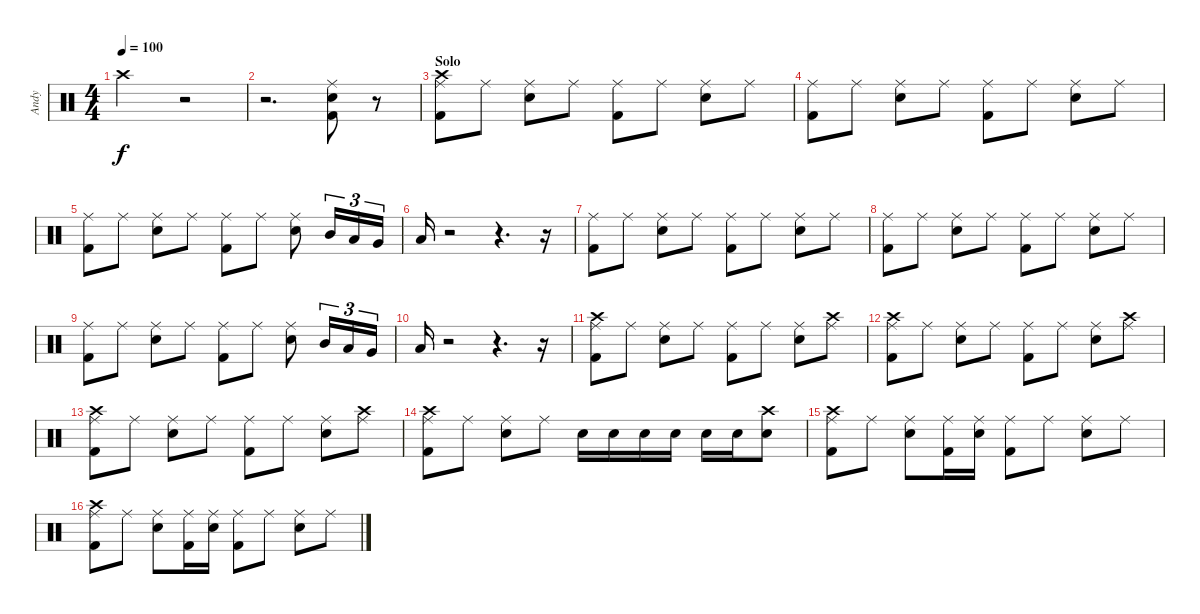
\track ("Andy" "Andy") {instrument percussion}
\staff {score}
\articulation defaults
\ts (4 4)
\tempo 100
\clef neutral
\ks c "Crash high (hit)".2{dy f}
r.2 |
r.2{d} ("Ride (middle)" "Snare (hit) 2" "Kick (hit) 2").8 r.8 |
\section ("" "Solo")
("Crash high (hit)" "Ride (middle)" "Kick (hit) 2").8 "Ride (middle)".8 ("Ride (middle)" "Snare (hit) 2").8 "Ride (middle)".8 ("Ride (middle)" "Kick (hit) 2").8 "Ride (middle)".8 ("Ride (middle)" "Snare (hit) 2").8 "Ride (middle)".8 |
("Ride (middle)" "Kick (hit) 2").8 "Ride (middle)".8 ("Ride (middle)" "Snare (hit) 2").8 "Ride (middle)".8 ("Ride (middle)" "Kick (hit) 2").8 "Ride (middle)".8 ("Ride (middle)" "Snare (hit) 2").8 "Ride (middle)".8 |
("Ride (middle)" "Kick (hit) 2").8 "Ride (middle)".8 ("Ride (middle)" "Snare (hit) 2").8 "Ride (middle)".8 ("Ride (middle)" "Kick (hit) 2").8 "Ride (middle)".8 ("Ride (middle)" "Snare (hit) 2").8 "Mid Tom (hit)".16{tu (3 2)} "Low Tom (hit)".16{tu (3 2)} "Very Low Tom (hit)".16{tu (3 2)} |
"Low Floor Tom (hit)".16 r.2 r.4{d} r.16 |
("Ride (middle)" "Kick (hit) 2").8 "Ride (middle)".8 ("Ride (middle)" "Snare (hit) 2").8 "Ride (middle)".8 ("Ride (middle)" "Kick (hit) 2").8 "Ride (middle)".8 ("Ride (middle)" "Snare (hit) 2").8 "Ride (middle)".8 |
("Ride (middle)" "Kick (hit) 2").8 "Ride (middle)".8 ("Ride (middle)" "Snare (hit) 2").8 "Ride (middle)".8 ("Ride (middle)" "Kick (hit) 2").8 "Ride (middle)".8 ("Ride (middle)" "Snare (hit) 2").8 "Ride (middle)".8 |
("Ride (middle)" "Kick (hit) 2").8 "Ride (middle)".8 ("Ride (middle)" "Snare (hit) 2").8 "Ride (middle)".8 ("Ride (middle)" "Kick (hit) 2").8 "Ride (middle)".8 ("Ride (middle)" "Snare (hit) 2").8 "Mid Tom (hit)".16{tu (3 2)} "Low Tom (hit)".16{tu (3 2)} "Very Low Tom (hit)".16{tu (3 2)} |
"Low Floor Tom (hit)".16 r.2 r.4{d} r.16 |
("Crash high (hit)" "Ride (middle)" "Kick (hit) 2").8 "Ride (middle)".8 ("Ride (middle)" "Snare (hit) 2").8 "Ride (middle)".8 ("Ride (middle)" "Kick (hit) 2").8 "Ride (middle)".8 ("Ride (middle)" "Snare (hit) 2").8 ("Crash high (hit)" "Ride (middle)").8 |
("Crash high (hit)" "Ride (middle)" "Kick (hit) 2").8 "Ride (middle)".8 ("Ride (middle)" "Snare (hit) 2").8 "Ride (middle)".8 ("Ride (middle)" "Kick (hit) 2").8 "Ride (middle)".8 ("Ride (middle)" "Snare (hit) 2").8 ("Crash high (hit)" "Ride (middle)").8 |
("Crash high (hit)" "Ride (middle)" "Kick (hit) 2").8 "Ride (middle)".8 ("Ride (middle)" "Snare (hit) 2").8 "Ride (middle)".8 ("Ride (middle)" "Kick (hit) 2").8 "Ride (middle)".8 ("Ride (middle)" "Snare (hit) 2").8 ("Crash high (hit)" "Ride (middle)").8 |
("Crash high (hit)" "Ride (middle)" "Kick (hit) 2").8 "Ride (middle)".8 ("Ride (middle)" "Snare (hit) 2").8 "Ride (middle)".8 "Snare (hit) 2".16 "Snare (hit) 2".16 "Snare (hit) 2".16 "Snare (hit) 2".16 "Snare (hit) 2".16 "Snare (hit) 2".16 ("Crash high (hit)" "Snare (hit) 2").8 |
("Crash high (hit)" "Ride (middle)" "Kick (hit) 2").8 "Ride (middle)".8 ("Ride (middle)" "Snare (hit) 2").8 ("Ride (middle)" "Kick (hit) 2").16 ("Ride (middle)" "Snare (hit) 2").16 ("Ride (middle)" "Kick (hit) 2").8 "Ride (middle)".8 ("Ride (middle)" "Snare (hit) 2").8 "Ride (middle)".8 |
("Crash high (hit)" "Ride (middle)" "Kick (hit) 2").8 "Ride (middle)".8 ("Ride (middle)" "Snare (hit) 2").8 ("Ride (middle)" "Kick (hit) 2").16 ("Ride (middle)" "Snare (hit) 2").16 ("Ride (middle)" "Kick (hit) 2").8 "Ride (middle)".8 ("Ride (middle)" "Snare (hit) 2").8 "Ride (middle)".8
